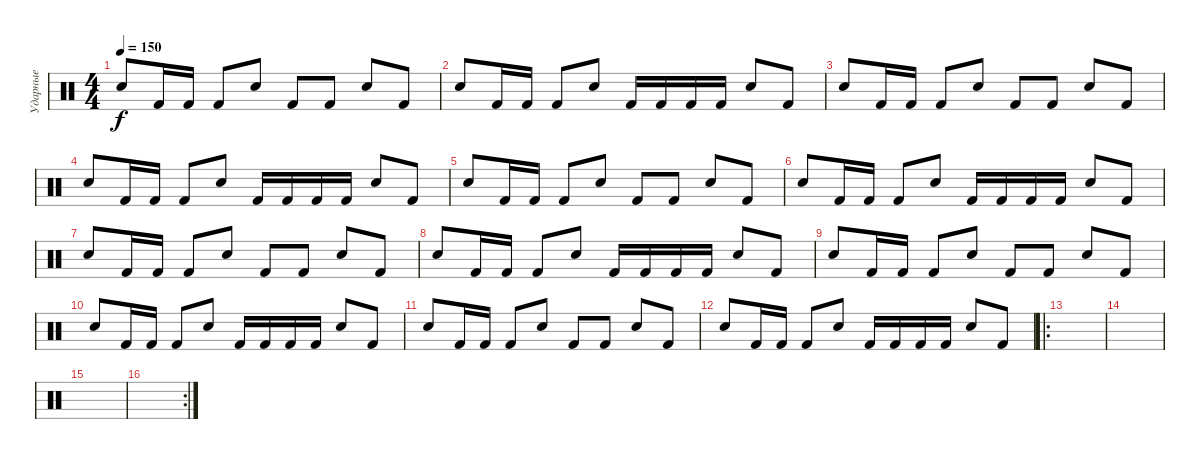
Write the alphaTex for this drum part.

\track ("Ударные" "Ударные") {instrument percussion}
\staff {score}
\articulation defaults
\ts (4 4)
\tempo 150
\clef neutral
\ks c "Snare (hit) 2".8{dy f} "Kick (hit) 2".16 "Kick (hit) 2".16 "Kick (hit) 2".8 "Hand Clap (hit)".8 "Kick (hit) 2".8 "Kick (hit) 2".8 "Hand Clap (hit)".8 "Kick (hit) 2".8
|
"Snare (hit) 2".8 "Kick (hit) 2".16 "Kick (hit) 2".16 "Kick (hit) 2".8 "Hand Clap (hit)".8 "Kick (hit) 2".16 "Kick (hit) 2".16 "Kick (hit) 2".16 "Kick (hit) 2".16 "Hand Clap (hit)".8 "Kick (hit) 2".8 |
"Snare (hit) 2".8 "Kick (hit) 2".16 "Kick (hit) 2".16 "Kick (hit) 2".8 "Hand Clap (hit)".8 "Kick (hit) 2".8 "Kick (hit) 2".8 "Hand Clap (hit)".8 "Kick (hit) 2".8 |
"Snare (hit) 2".8 "Kick (hit) 2".16 "Kick (hit) 2".16 "Kick (hit) 2".8 "Hand Clap (hit)".8 "Kick (hit) 2".16 "Kick (hit) 2".16 "Kick (hit) 2".16 "Kick (hit) 2".16 "Hand Clap (hit)".8 "Kick (hit) 2".8 |
"Snare (hit) 2".8 "Kick (hit) 2".16 "Kick (hit) 2".16 "Kick (hit) 2".8 "Hand Clap (hit)".8 "Kick (hit) 2".8 "Kick (hit) 2".8 "Hand Clap (hit)".8 "Kick (hit) 2".8 |
"Snare (hit) 2".8 "Kick (hit) 2".16 "Kick (hit) 2".16 "Kick (hit) 2".8 "Hand Clap (hit)".8 "Kick (hit) 2".16 "Kick (hit) 2".16 "Kick (hit) 2".16 "Kick (hit) 2".16 "Hand Clap (hit)".8 "Kick (hit) 2".8 |
"Snare (hit) 2".8 "Kick (hit) 2".16 "Kick (hit) 2".16 "Kick (hit) 2".8 "Hand Clap (hit)".8 "Kick (hit) 2".8 "Kick (hit) 2".8 "Hand Clap (hit)".8 "Kick (hit) 2".8 |
"Snare (hit) 2".8 "Kick (hit) 2".16 "Kick (hit) 2".16 "Kick (hit) 2".8 "Hand Clap (hit)".8 "Kick (hit) 2".16 "Kick (hit) 2".16 "Kick (hit) 2".16 "Kick (hit) 2".16 "Hand Clap (hit)".8 "Kick (hit) 2".8 |
"Snare (hit) 2".8 "Kick (hit) 2".16 "Kick (hit) 2".16 "Kick (hit) 2".8 "Hand Clap (hit)".8 "Kick (hit) 2".8 "Kick (hit) 2".8 "Hand Clap (hit)".8 "Kick (hit) 2".8 |
"Snare (hit) 2".8 "Kick (hit) 2".16 "Kick (hit) 2".16 "Kick (hit) 2".8 "Hand Clap (hit)".8 "Kick (hit) 2".16 "Kick (hit) 2".16 "Kick (hit) 2".16 "Kick (hit) 2".16 "Hand Clap (hit)".8 "Kick (hit) 2".8 |
"Snare (hit) 2".8 "Kick (hit) 2".16 "Kick (hit) 2".16 "Kick (hit) 2".8 "Hand Clap (hit)".8 "Kick (hit) 2".8 "Kick (hit) 2".8 "Hand Clap (hit)".8 "Kick (hit) 2".8 |
"Snare (hit) 2".8 "Kick (hit) 2".16 "Kick (hit) 2".16 "Kick (hit) 2".8 "Hand Clap (hit)".8 "Kick (hit) 2".16 "Kick (hit) 2".16 "Kick (hit) 2".16 "Kick (hit) 2".16 "Hand Clap (hit)".8 "Kick (hit) 2".8 |
\ro
|
|
|
\rc 2
